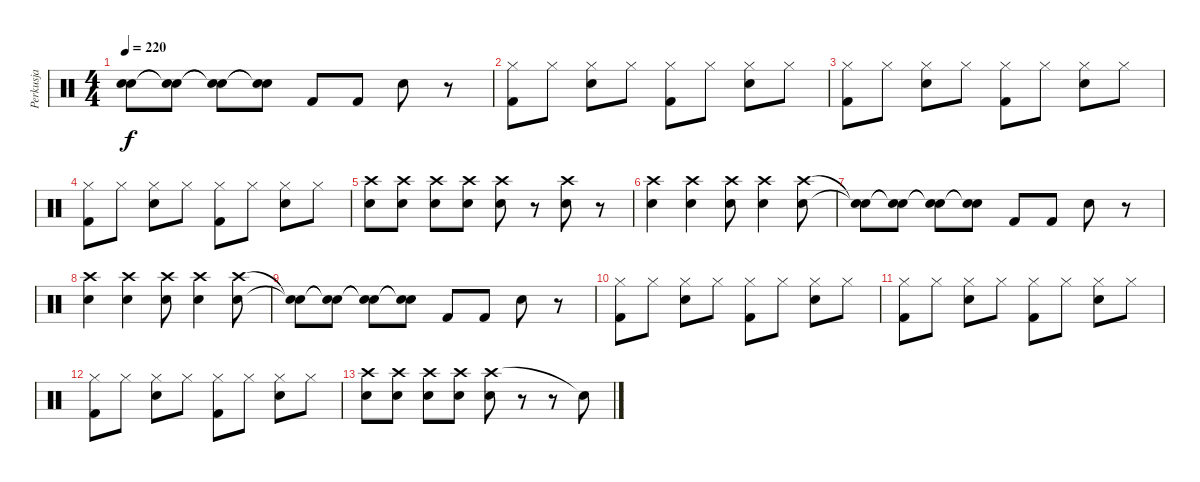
\track ("Perkusja" "Perkusja") {instrument percussion}
\staff {score}
\articulation defaults
\ts (4 4)
\tempo 220
\clef neutral
\ks c
("Snare (hit)"{t} "Snare (hit)"{t}).8{dy f} ("Snare (hit)"{t} "Snare (hit)"{t}).8 ("Snare (hit)"{t} "Snare (hit)"{t}).8 ("Snare (hit)"{t} "Snare (hit)"{t}).8 "Kick (hit) 2".8 "Kick (hit) 2".8 "Snare (hit) 2".8 r.8 |
("Hi-Hat (closed)" "Kick (hit) 2").8 "Hi-Hat (closed)".8 ("Hi-Hat (closed)" "Snare (hit) 2").8 "Hi-Hat (closed)".8 ("Hi-Hat (closed)" "Kick (hit) 2").8 "Hi-Hat (closed)".8 ("Hi-Hat (closed)" "Snare (hit) 2").8 "Hi-Hat (closed)".8 |
("Hi-Hat (closed)" "Kick (hit) 2").8 "Hi-Hat (closed)".8 ("Hi-Hat (closed)" "Snare (hit) 2").8 "Hi-Hat (closed)".8 ("Hi-Hat (closed)" "Kick (hit) 2").8 "Hi-Hat (closed)".8 ("Hi-Hat (closed)" "Snare (hit) 2").8 "Hi-Hat (closed)".8 |
("Hi-Hat (closed)" "Kick (hit) 2").8 "Hi-Hat (closed)".8 ("Hi-Hat (closed)" "Snare (hit) 2").8 "Hi-Hat (closed)".8 ("Hi-Hat (closed)" "Kick (hit) 2").8 "Hi-Hat (closed)".8 ("Hi-Hat (closed)" "Snare (hit) 2").8 "Hi-Hat (closed)".8 |
("Crash high (hit)" "Snare (hit) 2").8 ("Crash high (hit)" "Snare (hit) 2").8 ("Crash high (hit)" "Snare (hit) 2").8 ("Crash high (hit)" "Snare (hit) 2").8 ("Crash high (hit)" "Snare (hit) 2").8 r.8 ("Crash high (hit)" "Snare (hit) 2").8 r.8 |
("Crash high (hit)" "Snare (hit) 2").4 ("Crash high (hit)" "Snare (hit) 2").4 ("Crash high (hit)" "Snare (hit) 2").8 ("Crash high (hit)" "Snare (hit) 2").4 ("Crash high (hit)" "Snare (hit) 2").8 |
("Snare (hit)"{t} "Snare (hit)"{t}).8 ("Snare (hit)"{t} "Snare (hit)"{t}).8 ("Snare (hit)"{t} "Snare (hit)"{t}).8 ("Snare (hit)"{t} "Snare (hit)"{t}).8 "Kick (hit) 2".8 "Kick (hit) 2".8 "Snare (hit) 2".8 r.8 |
("Crash high (hit)" "Snare (hit) 2").4 ("Crash high (hit)" "Snare (hit) 2").4 ("Crash high (hit)" "Snare (hit) 2").8 ("Crash high (hit)" "Snare (hit) 2").4 ("Crash high (hit)" "Snare (hit) 2").8 |
("Snare (hit)"{t} "Snare (hit)"{t}).8 ("Snare (hit)"{t} "Snare (hit)"{t}).8 ("Snare (hit)"{t} "Snare (hit)"{t}).8 ("Snare (hit)"{t} "Snare (hit)"{t}).8 "Kick (hit) 2".8 "Kick (hit) 2".8 "Snare (hit) 2".8 r.8 |
("Hi-Hat (closed)" "Kick (hit) 2").8 "Hi-Hat (closed)".8 ("Hi-Hat (closed)" "Snare (hit) 2").8 "Hi-Hat (closed)".8 ("Hi-Hat (closed)" "Kick (hit) 2").8 "Hi-Hat (closed)".8 ("Hi-Hat (closed)" "Snare (hit) 2").8 "Hi-Hat (closed)".8 |
("Hi-Hat (closed)" "Kick (hit) 2").8 "Hi-Hat (closed)".8 ("Hi-Hat (closed)" "Snare (hit) 2").8 "Hi-Hat (closed)".8 ("Hi-Hat (closed)" "Kick (hit) 2").8 "Hi-Hat (closed)".8 ("Hi-Hat (closed)" "Snare (hit) 2").8 "Hi-Hat (closed)".8 |
("Hi-Hat (closed)" "Kick (hit) 2").8 "Hi-Hat (closed)".8 ("Hi-Hat (closed)" "Snare (hit) 2").8 "Hi-Hat (closed)".8 ("Hi-Hat (closed)" "Kick (hit) 2").8 "Hi-Hat (closed)".8 ("Hi-Hat (closed)" "Snare (hit) 2").8 "Hi-Hat (closed)".8 |
("Crash high (hit)" "Snare (hit) 2").8 ("Crash high (hit)" "Snare (hit) 2").8 ("Crash high (hit)" "Snare (hit) 2").8 ("Crash high (hit)" "Snare (hit) 2").8 ("Crash high (hit)" "Snare (hit) 2").8 r.8 r.8 "Snare (hit)"{t}.8
